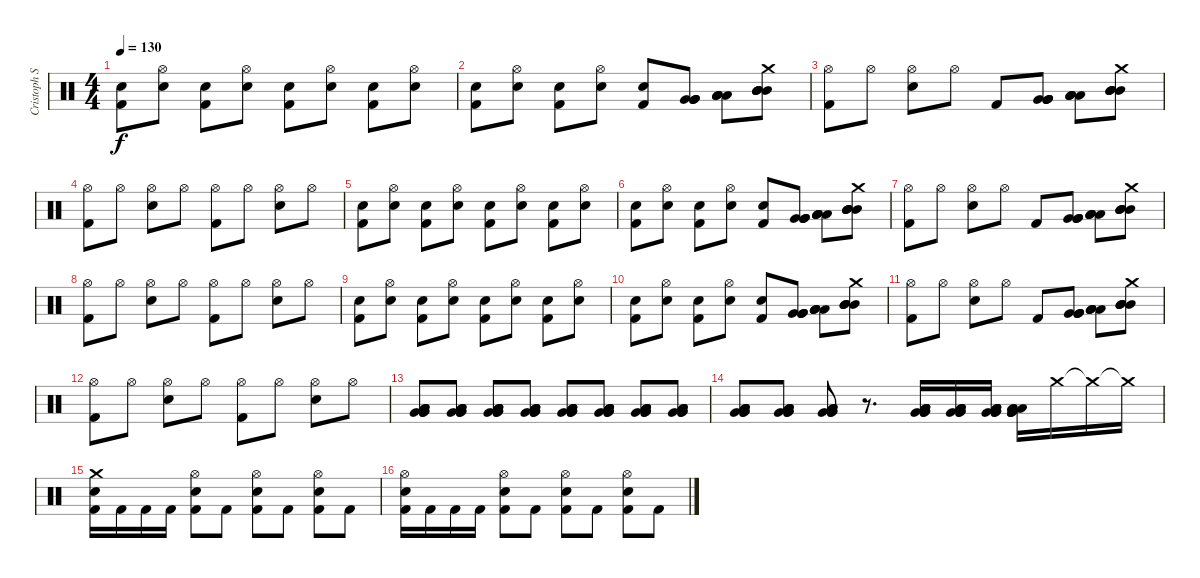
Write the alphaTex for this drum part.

\track ("Cristoph Schneider" "Cristoph S") {instrument percussion}
\staff {score}
\articulation defaults
\ts (4 4)
\tempo 130
\clef neutral
\ks c
("Electric Snare (hit)" "Kick (hit) 2").8{dy f} ("Hi-Hat (open)" "Electric Snare (hit)").8 ("Electric Snare (hit)" "Kick (hit) 2").8 ("Hi-Hat (open)" "Electric Snare (hit)").8 ("Electric Snare (hit)" "Kick (hit) 2").8 ("Hi-Hat (open)" "Electric Snare (hit)").8 ("Electric Snare (hit)" "Kick (hit) 2").8 ("Hi-Hat (open)" "Electric Snare (hit)").8 |
("Electric Snare (hit)" "Kick (hit) 2").8 ("Hi-Hat (open)" "Electric Snare (hit)").8 ("Electric Snare (hit)" "Kick (hit) 2").8 ("Hi-Hat (open)" "Electric Snare (hit)").8 ("Electric Snare (hit)" "Kick (hit) 2").8 ("Very Low Tom (hit)" "Very Low Tom (hit)" "Very Low Tom (hit)" "Very Low Tom (hit)").8 ("Low Floor Tom (hit)" "Low Floor Tom (hit)" "Low Floor Tom (hit)" "Low Floor Tom (hit)").8 ("Mid Tom (hit)" "Mid Tom (hit)" "Mid Tom (hit)" "Mid Tom (hit)" "Crash medium (hit)").8 |
("Hi-Hat (open)" "Kick (hit) 2").8 "Hi-Hat (open)".8 ("Hi-Hat (open)" "Electric Snare (hit)").8 "Hi-Hat (open)".8 "Kick (hit) 2".8 ("Very Low Tom (hit)" "Very Low Tom (hit)" "Very Low Tom (hit)" "Very Low Tom (hit)").8 ("Low Floor Tom (hit)" "Low Floor Tom (hit)" "Low Floor Tom (hit)" "Low Floor Tom (hit)").8 ("Mid Tom (hit)" "Mid Tom (hit)" "Mid Tom (hit)" "Mid Tom (hit)" "Crash medium (hit)").8 |
("Hi-Hat (open)" "Kick (hit) 2").8 "Hi-Hat (open)".8 ("Hi-Hat (open)" "Electric Snare (hit)").8 "Hi-Hat (open)".8 ("Hi-Hat (open)" "Kick (hit) 2").8 "Hi-Hat (open)".8 ("Hi-Hat (open)" "Electric Snare (hit)").8 "Hi-Hat (open)".8 |
("Electric Snare (hit)" "Kick (hit) 2").8 ("Hi-Hat (open)" "Electric Snare (hit)").8 ("Electric Snare (hit)" "Kick (hit) 2").8 ("Hi-Hat (open)" "Electric Snare (hit)").8 ("Electric Snare (hit)" "Kick (hit) 2").8 ("Hi-Hat (open)" "Electric Snare (hit)").8 ("Electric Snare (hit)" "Kick (hit) 2").8 ("Hi-Hat (open)" "Electric Snare (hit)").8 |
("Electric Snare (hit)" "Kick (hit) 2").8 ("Hi-Hat (open)" "Electric Snare (hit)").8 ("Electric Snare (hit)" "Kick (hit) 2").8 ("Hi-Hat (open)" "Electric Snare (hit)").8 ("Electric Snare (hit)" "Kick (hit) 2").8 ("Very Low Tom (hit)" "Very Low Tom (hit)" "Very Low Tom (hit)" "Very Low Tom (hit)").8 ("Low Floor Tom (hit)" "Low Floor Tom (hit)" "Low Floor Tom (hit)" "Low Floor Tom (hit)").8 ("Mid Tom (hit)" "Mid Tom (hit)" "Mid Tom (hit)" "Mid Tom (hit)" "Crash medium (hit)").8 |
("Hi-Hat (open)" "Kick (hit) 2").8 "Hi-Hat (open)".8 ("Hi-Hat (open)" "Electric Snare (hit)").8 "Hi-Hat (open)".8 "Kick (hit) 2".8 ("Very Low Tom (hit)" "Very Low Tom (hit)" "Very Low Tom (hit)" "Very Low Tom (hit)").8 ("Low Floor Tom (hit)" "Low Floor Tom (hit)" "Low Floor Tom (hit)" "Low Floor Tom (hit)").8 ("Mid Tom (hit)" "Mid Tom (hit)" "Mid Tom (hit)" "Mid Tom (hit)" "Crash medium (hit)").8 |
("Hi-Hat (open)" "Kick (hit) 2").8 "Hi-Hat (open)".8 ("Hi-Hat (open)" "Electric Snare (hit)").8 "Hi-Hat (open)".8 ("Hi-Hat (open)" "Kick (hit) 2").8 "Hi-Hat (open)".8 ("Hi-Hat (open)" "Electric Snare (hit)").8 "Hi-Hat (open)".8 |
("Electric Snare (hit)" "Kick (hit) 2").8 ("Hi-Hat (open)" "Electric Snare (hit)").8 ("Electric Snare (hit)" "Kick (hit) 2").8 ("Hi-Hat (open)" "Electric Snare (hit)").8 ("Electric Snare (hit)" "Kick (hit) 2").8 ("Hi-Hat (open)" "Electric Snare (hit)").8 ("Electric Snare (hit)" "Kick (hit) 2").8 ("Hi-Hat (open)" "Electric Snare (hit)").8 |
("Electric Snare (hit)" "Kick (hit) 2").8 ("Hi-Hat (open)" "Electric Snare (hit)").8 ("Electric Snare (hit)" "Kick (hit) 2").8 ("Hi-Hat (open)" "Electric Snare (hit)").8 ("Electric Snare (hit)" "Kick (hit) 2").8 ("Very Low Tom (hit)" "Very Low Tom (hit)" "Very Low Tom (hit)" "Very Low Tom (hit)").8 ("Low Floor Tom (hit)" "Low Floor Tom (hit)" "Low Floor Tom (hit)" "Low Floor Tom (hit)").8 ("Mid Tom (hit)" "Mid Tom (hit)" "Mid Tom (hit)" "Mid Tom (hit)" "Crash medium (hit)").8 |
("Hi-Hat (open)" "Kick (hit) 2").8 "Hi-Hat (open)".8 ("Hi-Hat (open)" "Electric Snare (hit)").8 "Hi-Hat (open)".8 "Kick (hit) 2".8 ("Very Low Tom (hit)" "Very Low Tom (hit)" "Very Low Tom (hit)" "Very Low Tom (hit)").8 ("Low Floor Tom (hit)" "Low Floor Tom (hit)" "Low Floor Tom (hit)" "Low Floor Tom (hit)").8 ("Mid Tom (hit)" "Mid Tom (hit)" "Mid Tom (hit)" "Mid Tom (hit)" "Crash medium (hit)").8 |
("Hi-Hat (open)" "Kick (hit) 2").8 "Hi-Hat (open)".8 ("Hi-Hat (open)" "Electric Snare (hit)").8 "Hi-Hat (open)".8 ("Hi-Hat (open)" "Kick (hit) 2").8 "Hi-Hat (open)".8 ("Hi-Hat (open)" "Electric Snare (hit)").8 "Hi-Hat (open)".8 |
("Very Low Tom (hit)" "Very Low Tom (hit)" "Very Low Tom (hit)" "Low Floor Tom (hit)" "Low Floor Tom (hit)" "Low Floor Tom (hit)").8 ("Very Low Tom (hit)" "Very Low Tom (hit)" "Very Low Tom (hit)" "Low Floor Tom (hit)" "Low Floor Tom (hit)" "Low Floor Tom (hit)").8 ("Very Low Tom (hit)" "Very Low Tom (hit)" "Very Low Tom (hit)" "Low Floor Tom (hit)" "Low Floor Tom (hit)" "Low Floor Tom (hit)").8 ("Very Low Tom (hit)" "Very Low Tom (hit)" "Very Low Tom (hit)" "Low Floor Tom (hit)" "Low Floor Tom (hit)" "Low Floor Tom (hit)").8 ("Very Low Tom (hit)" "Very Low Tom (hit)" "Very Low Tom (hit)" "Low Floor Tom (hit)" "Low Floor Tom (hit)" "Low Floor Tom (hit)").8 ("Very Low Tom (hit)" "Very Low Tom (hit)" "Very Low Tom (hit)" "Low Floor Tom (hit)" "Low Floor Tom (hit)" "Low Floor Tom (hit)").8 ("Very Low Tom (hit)" "Very Low Tom (hit)" "Very Low Tom (hit)" "Low Floor Tom (hit)" "Low Floor Tom (hit)" "Low Floor Tom (hit)").8 ("Very Low Tom (hit)" "Very Low Tom (hit)" "Very Low Tom (hit)" "Low Floor Tom (hit)" "Low Floor Tom (hit)" "Low Floor Tom (hit)").8 |
("Very Low Tom (hit)" "Very Low Tom (hit)" "Very Low Tom (hit)" "Low Floor Tom (hit)" "Low Floor Tom (hit)" "Low Floor Tom (hit)").8 ("Very Low Tom (hit)" "Very Low Tom (hit)" "Very Low Tom (hit)" "Low Floor Tom (hit)" "Low Floor Tom (hit)" "Low Floor Tom (hit)").8 ("Very Low Tom (hit)" "Very Low Tom (hit)" "Very Low Tom (hit)" "Low Floor Tom (hit)" "Low Floor Tom (hit)" "Low Floor Tom (hit)").8 r.8{d} ("Very Low Tom (hit)" "Very Low Tom (hit)" "Very Low Tom (hit)" "Low Floor Tom (hit)" "Low Floor Tom (hit)" "Low Floor Tom (hit)").16 ("Very Low Tom (hit)" "Very Low Tom (hit)" "Very Low Tom (hit)" "Low Floor Tom (hit)" "Low Floor Tom (hit)" "Low Floor Tom (hit)").16 ("Very Low Tom (hit)" "Very Low Tom (hit)" "Very Low Tom (hit)" "Low Floor Tom (hit)" "Low Floor Tom (hit)" "Low Floor Tom (hit)").16 ("Very Low Tom (hit)" "Very Low Tom (hit)" "Very Low Tom (hit)" "Low Floor Tom (hit)" "Low Floor Tom (hit)" "Low Floor Tom (hit)").16 "Crash medium (hit)".16 "Crash medium (hit)"{t}.16 "Crash medium (hit)"{t}.16 |
("Kick (hit) 2" "Crash medium (hit)" "Electric Snare (hit)").16 "Kick (hit) 2".16 "Kick (hit) 2".16 "Kick (hit) 2".16 ("Kick (hit) 2" "Hi-Hat (open)" "Electric Snare (hit)").8 "Kick (hit) 2".8 ("Kick (hit) 2" "Electric Snare (hit)" "Hi-Hat (open)").8 "Kick (hit) 2".8 ("Kick (hit) 2" "Hi-Hat (open)" "Electric Snare (hit)").8 "Kick (hit) 2".8 |
("Kick (hit) 2" "Hi-Hat (open)" "Electric Snare (hit)").16 "Kick (hit) 2".16 "Kick (hit) 2".16 "Kick (hit) 2".16 ("Kick (hit) 2" "Hi-Hat (open)" "Electric Snare (hit)").8 "Kick (hit) 2".8 ("Kick (hit) 2" "Electric Snare (hit)" "Hi-Hat (open)").8 "Kick (hit) 2".8 ("Kick (hit) 2" "Hi-Hat (open)" "Electric Snare (hit)").8 "Kick (hit) 2".8
